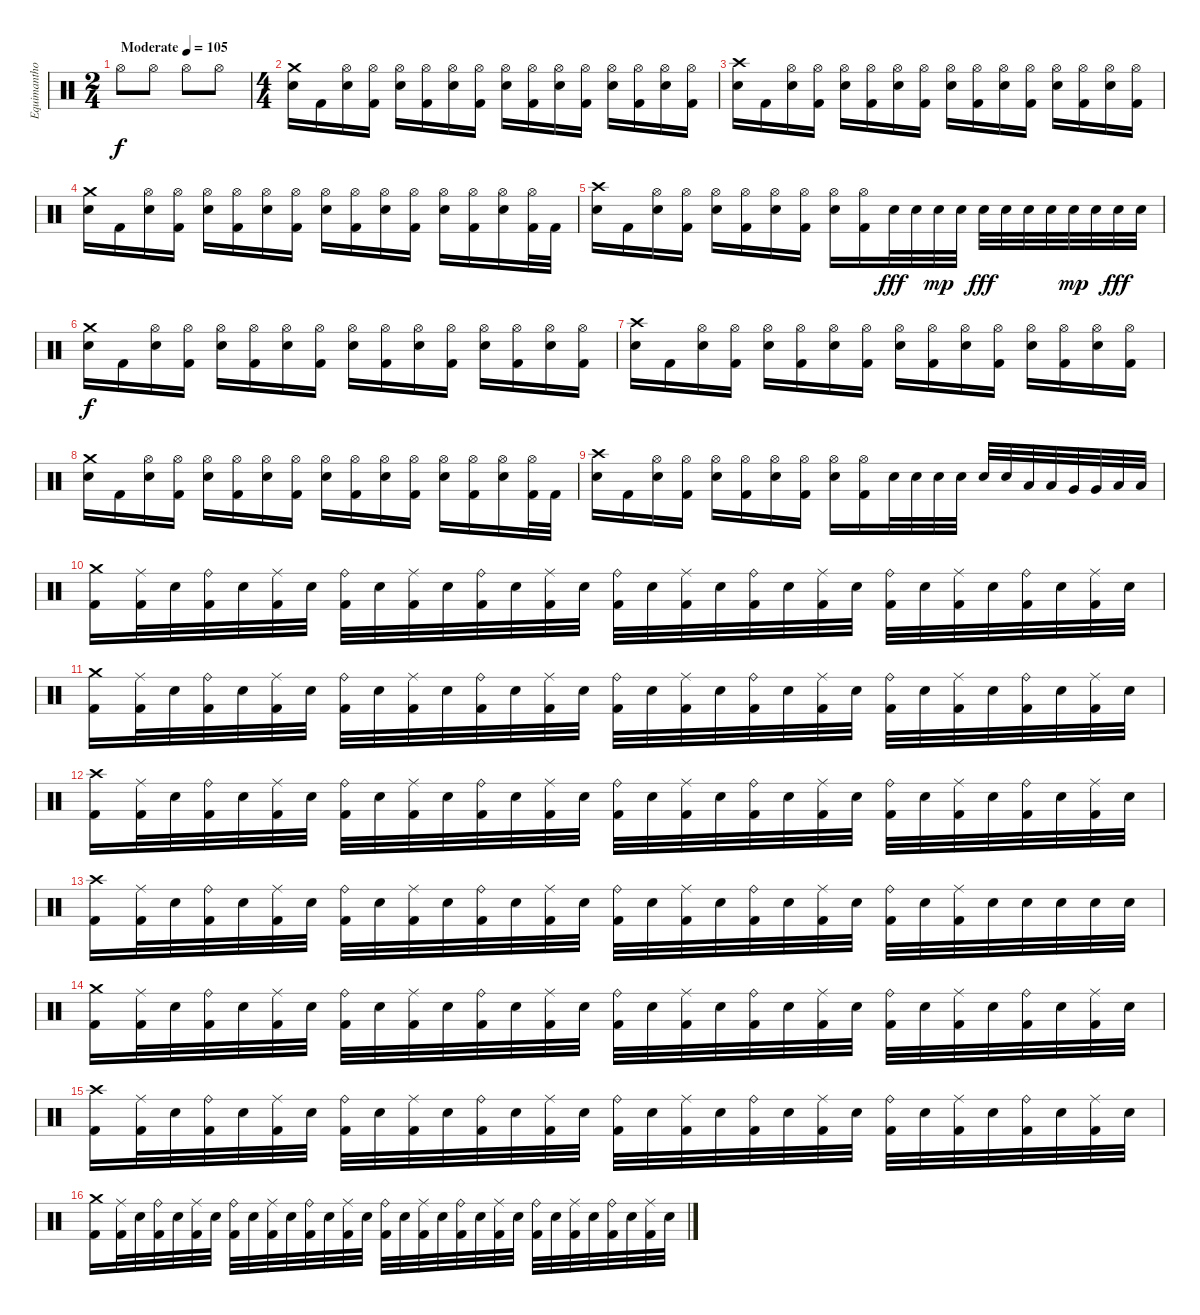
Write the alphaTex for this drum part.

\track ("Equimanthorn" "Equimantho") {instrument percussion}
\staff {score}
\articulation defaults
\ts (2 4)
\tempo (105 "Moderate")
\clef neutral
\ks c "Hi-Hat (open)".8{dy f} "Hi-Hat (open)".8 "Hi-Hat (open)".8 "Hi-Hat (open)".8
|
\ts (4 4)
("Crash medium (hit)" "Snare (hit) 2").16 "Kick (hit) 2".16 ("Hi-Hat (open)" "Snare (hit) 2").16 ("Hi-Hat (open)" "Kick (hit) 2").16 ("Hi-Hat (open)" "Snare (hit) 2").16 ("Hi-Hat (open)" "Kick (hit) 2").16 ("Hi-Hat (open)" "Snare (hit) 2").16 ("Hi-Hat (open)" "Kick (hit) 2").16 ("Hi-Hat (open)" "Snare (hit) 2").16 ("Hi-Hat (open)" "Kick (hit) 2").16 ("Hi-Hat (open)" "Snare (hit) 2").16 ("Hi-Hat (open)" "Kick (hit) 2").16 ("Hi-Hat (open)" "Snare (hit) 2").16 ("Hi-Hat (open)" "Kick (hit) 2").16 ("Hi-Hat (open)" "Snare (hit) 2").16 ("Hi-Hat (open)" "Kick (hit) 2").16 |
("Crash high (hit)" "Snare (hit) 2").16 "Kick (hit) 2".16 ("Hi-Hat (open)" "Snare (hit) 2").16 ("Hi-Hat (open)" "Kick (hit) 2").16 ("Hi-Hat (open)" "Snare (hit) 2").16 ("Hi-Hat (open)" "Kick (hit) 2").16 ("Hi-Hat (open)" "Snare (hit) 2").16 ("Hi-Hat (open)" "Kick (hit) 2").16 ("Hi-Hat (open)" "Snare (hit) 2").16 ("Hi-Hat (open)" "Kick (hit) 2").16 ("Hi-Hat (open)" "Snare (hit) 2").16 ("Hi-Hat (open)" "Kick (hit) 2").16 ("Hi-Hat (open)" "Snare (hit) 2").16 ("Hi-Hat (open)" "Kick (hit) 2").16 ("Hi-Hat (open)" "Snare (hit) 2").16 ("Hi-Hat (open)" "Kick (hit) 2").16 |
("Crash medium (hit)" "Snare (hit) 2").16 "Kick (hit) 2".16 ("Hi-Hat (open)" "Snare (hit) 2").16 ("Hi-Hat (open)" "Kick (hit) 2").16 ("Hi-Hat (open)" "Snare (hit) 2").16 ("Hi-Hat (open)" "Kick (hit) 2").16 ("Hi-Hat (open)" "Snare (hit) 2").16 ("Hi-Hat (open)" "Kick (hit) 2").16 ("Hi-Hat (open)" "Snare (hit) 2").16 ("Hi-Hat (open)" "Kick (hit) 2").16 ("Hi-Hat (open)" "Snare (hit) 2").16 ("Hi-Hat (open)" "Kick (hit) 2").16 ("Hi-Hat (open)" "Snare (hit) 2").16 ("Hi-Hat (open)" "Kick (hit) 2").16 ("Hi-Hat (open)" "Snare (hit) 2").16 ("Hi-Hat (open)" "Kick (hit) 2").32 "Kick (hit) 2".32 |
("Crash high (hit)" "Snare (hit) 2").16 "Kick (hit) 2".16 ("Hi-Hat (open)" "Snare (hit) 2").16 ("Hi-Hat (open)" "Kick (hit) 2").16 ("Hi-Hat (open)" "Snare (hit) 2").16 ("Hi-Hat (open)" "Kick (hit) 2").16 ("Hi-Hat (open)" "Snare (hit) 2").16 ("Hi-Hat (open)" "Kick (hit) 2").16 ("Hi-Hat (open)" "Snare (hit) 2").16 ("Hi-Hat (open)" "Kick (hit) 2").16 "Snare (hit) 2".32{dy fff} "Snare (hit) 2".32 "Snare (hit) 2".32{dy mp} "Snare (hit) 2".32 "Snare (hit) 2".32{dy fff} "Snare (hit) 2".32 "Snare (hit) 2".32 "Snare (hit) 2".32 "Snare (hit) 2".32{dy mp} "Snare (hit) 2".32 "Snare (hit) 2".32{dy fff} "Snare (hit) 2".32 |
("Crash medium (hit)" "Snare (hit) 2").16{dy f} "Kick (hit) 2".16 ("Hi-Hat (open)" "Snare (hit) 2").16 ("Hi-Hat (open)" "Kick (hit) 2").16 ("Hi-Hat (open)" "Snare (hit) 2").16 ("Hi-Hat (open)" "Kick (hit) 2").16 ("Hi-Hat (open)" "Snare (hit) 2").16 ("Hi-Hat (open)" "Kick (hit) 2").16 ("Hi-Hat (open)" "Snare (hit) 2").16 ("Hi-Hat (open)" "Kick (hit) 2").16 ("Hi-Hat (open)" "Snare (hit) 2").16 ("Hi-Hat (open)" "Kick (hit) 2").16 ("Hi-Hat (open)" "Snare (hit) 2").16 ("Hi-Hat (open)" "Kick (hit) 2").16 ("Hi-Hat (open)" "Snare (hit) 2").16 ("Hi-Hat (open)" "Kick (hit) 2").16 |
("Crash high (hit)" "Snare (hit) 2").16 "Kick (hit) 2".16 ("Hi-Hat (open)" "Snare (hit) 2").16 ("Hi-Hat (open)" "Kick (hit) 2").16 ("Hi-Hat (open)" "Snare (hit) 2").16 ("Hi-Hat (open)" "Kick (hit) 2").16 ("Hi-Hat (open)" "Snare (hit) 2").16 ("Hi-Hat (open)" "Kick (hit) 2").16 ("Hi-Hat (open)" "Snare (hit) 2").16 ("Hi-Hat (open)" "Kick (hit) 2").16 ("Hi-Hat (open)" "Snare (hit) 2").16 ("Hi-Hat (open)" "Kick (hit) 2").16 ("Hi-Hat (open)" "Snare (hit) 2").16 ("Hi-Hat (open)" "Kick (hit) 2").16 ("Hi-Hat (open)" "Snare (hit) 2").16 ("Hi-Hat (open)" "Kick (hit) 2").16 |
("Crash medium (hit)" "Snare (hit) 2").16 "Kick (hit) 2".16 ("Hi-Hat (open)" "Snare (hit) 2").16 ("Hi-Hat (open)" "Kick (hit) 2").16 ("Hi-Hat (open)" "Snare (hit) 2").16 ("Hi-Hat (open)" "Kick (hit) 2").16 ("Hi-Hat (open)" "Snare (hit) 2").16 ("Hi-Hat (open)" "Kick (hit) 2").16 ("Hi-Hat (open)" "Snare (hit) 2").16 ("Hi-Hat (open)" "Kick (hit) 2").16 ("Hi-Hat (open)" "Snare (hit) 2").16 ("Hi-Hat (open)" "Kick (hit) 2").16 ("Hi-Hat (open)" "Snare (hit) 2").16 ("Hi-Hat (open)" "Kick (hit) 2").16 ("Hi-Hat (open)" "Snare (hit) 2").16 ("Hi-Hat (open)" "Kick (hit) 2").32 "Kick (hit) 2".32 |
("Crash high (hit)" "Snare (hit) 2").16 "Kick (hit) 2".16 ("Hi-Hat (open)" "Snare (hit) 2").16 ("Hi-Hat (open)" "Kick (hit) 2").16 ("Hi-Hat (open)" "Snare (hit) 2").16 ("Hi-Hat (open)" "Kick (hit) 2").16 ("Hi-Hat (open)" "Snare (hit) 2").16 ("Hi-Hat (open)" "Kick (hit) 2").16 ("Hi-Hat (open)" "Snare (hit) 2").16 ("Hi-Hat (open)" "Kick (hit) 2").16 "Snare (hit) 2".32 "Snare (hit) 2".32 "Snare (hit) 2".32 "Snare (hit) 2".32 "Snare (hit) 2".32 "Snare (hit) 2".32 "Low Tom (hit)".32 "Low Tom (hit)".32 "Very Low Tom (hit)".32 "Very Low Tom (hit)".32 "Low Floor Tom (hit)".32 "Low Floor Tom (hit)".32 |
("Crash medium (hit)" "Kick (hit) 2").16 ("Ride (middle)" "Kick (hit) 2").32 "Snare (hit) 2".32 ("Ride (bell)" "Kick (hit) 2").32 "Snare (hit) 2".32 ("Ride (middle)" "Kick (hit) 2").32 "Snare (hit) 2".32 ("Ride (bell)" "Kick (hit) 2").32 "Snare (hit) 2".32 ("Ride (middle)" "Kick (hit) 2").32 "Snare (hit) 2".32 ("Ride (bell)" "Kick (hit) 2").32 "Snare (hit) 2".32 ("Ride (middle)" "Kick (hit) 2").32 "Snare (hit) 2".32 ("Ride (bell)" "Kick (hit) 2").32 "Snare (hit) 2".32 ("Ride (middle)" "Kick (hit) 2").32 "Snare (hit) 2".32 ("Ride (bell)" "Kick (hit) 2").32 "Snare (hit) 2".32 ("Ride (middle)" "Kick (hit) 2").32 "Snare (hit) 2".32 ("Ride (bell)" "Kick (hit) 2").32 "Snare (hit) 2".32 ("Ride (middle)" "Kick (hit) 2").32 "Snare (hit) 2".32 ("Ride (bell)" "Kick (hit) 2").32 "Snare (hit) 2".32 ("Ride (middle)" "Kick (hit) 2").32 "Snare (hit) 2".32 |
("Crash medium (hit)" "Kick (hit) 2").16 ("Ride (middle)" "Kick (hit) 2").32 "Snare (hit) 2".32 ("Ride (bell)" "Kick (hit) 2").32 "Snare (hit) 2".32 ("Ride (middle)" "Kick (hit) 2").32 "Snare (hit) 2".32 ("Ride (bell)" "Kick (hit) 2").32 "Snare (hit) 2".32 ("Ride (middle)" "Kick (hit) 2").32 "Snare (hit) 2".32 ("Ride (bell)" "Kick (hit) 2").32 "Snare (hit) 2".32 ("Ride (middle)" "Kick (hit) 2").32 "Snare (hit) 2".32 ("Ride (bell)" "Kick (hit) 2").32 "Snare (hit) 2".32 ("Ride (middle)" "Kick (hit) 2").32 "Snare (hit) 2".32 ("Ride (bell)" "Kick (hit) 2").32 "Snare (hit) 2".32 ("Ride (middle)" "Kick (hit) 2").32 "Snare (hit) 2".32 ("Ride (bell)" "Kick (hit) 2").32 "Snare (hit) 2".32 ("Ride (middle)" "Kick (hit) 2").32 "Snare (hit) 2".32 ("Ride (bell)" "Kick (hit) 2").32 "Snare (hit) 2".32 ("Ride (middle)" "Kick (hit) 2").32 "Snare (hit) 2".32 |
("Crash high (hit)" "Kick (hit) 2").16 ("Ride (middle)" "Kick (hit) 2").32 "Snare (hit) 2".32 ("Ride (bell)" "Kick (hit) 2").32 "Snare (hit) 2".32 ("Ride (middle)" "Kick (hit) 2").32 "Snare (hit) 2".32 ("Ride (bell)" "Kick (hit) 2").32 "Snare (hit) 2".32 ("Ride (middle)" "Kick (hit) 2").32 "Snare (hit) 2".32 ("Ride (bell)" "Kick (hit) 2").32 "Snare (hit) 2".32 ("Ride (middle)" "Kick (hit) 2").32 "Snare (hit) 2".32 ("Ride (bell)" "Kick (hit) 2").32 "Snare (hit) 2".32 ("Ride (middle)" "Kick (hit) 2").32 "Snare (hit) 2".32 ("Ride (bell)" "Kick (hit) 2").32 "Snare (hit) 2".32 ("Ride (middle)" "Kick (hit) 2").32 "Snare (hit) 2".32 ("Ride (bell)" "Kick (hit) 2").32 "Snare (hit) 2".32 ("Ride (middle)" "Kick (hit) 2").32 "Snare (hit) 2".32 ("Ride (bell)" "Kick (hit) 2").32 "Snare (hit) 2".32 ("Ride (middle)" "Kick (hit) 2").32 "Snare (hit) 2".32 |
("Crash high (hit)" "Kick (hit) 2").16 ("Ride (middle)" "Kick (hit) 2").32 "Snare (hit) 2".32 ("Ride (bell)" "Kick (hit) 2").32 "Snare (hit) 2".32 ("Ride (middle)" "Kick (hit) 2").32 "Snare (hit) 2".32 ("Ride (bell)" "Kick (hit) 2").32 "Snare (hit) 2".32 ("Ride (middle)" "Kick (hit) 2").32 "Snare (hit) 2".32 ("Ride (bell)" "Kick (hit) 2").32 "Snare (hit) 2".32 ("Ride (middle)" "Kick (hit) 2").32 "Snare (hit) 2".32 ("Ride (bell)" "Kick (hit) 2").32 "Snare (hit) 2".32 ("Ride (middle)" "Kick (hit) 2").32 "Snare (hit) 2".32 ("Ride (bell)" "Kick (hit) 2").32 "Snare (hit) 2".32 ("Ride (middle)" "Kick (hit) 2").32 "Snare (hit) 2".32 ("Ride (bell)" "Kick (hit) 2").32 "Snare (hit) 2".32 ("Ride (middle)" "Kick (hit) 2").32 "Snare (hit) 2".32 "Snare (hit) 2".32 "Snare (hit) 2".32 "Snare (hit) 2".32 "Snare (hit) 2".32 |
("Crash medium (hit)" "Kick (hit) 2").16 ("Ride (middle)" "Kick (hit) 2").32 "Snare (hit) 2".32 ("Ride (bell)" "Kick (hit) 2").32 "Snare (hit) 2".32 ("Ride (middle)" "Kick (hit) 2").32 "Snare (hit) 2".32 ("Ride (bell)" "Kick (hit) 2").32 "Snare (hit) 2".32 ("Ride (middle)" "Kick (hit) 2").32 "Snare (hit) 2".32 ("Ride (bell)" "Kick (hit) 2").32 "Snare (hit) 2".32 ("Ride (middle)" "Kick (hit) 2").32 "Snare (hit) 2".32 ("Ride (bell)" "Kick (hit) 2").32 "Snare (hit) 2".32 ("Ride (middle)" "Kick (hit) 2").32 "Snare (hit) 2".32 ("Ride (bell)" "Kick (hit) 2").32 "Snare (hit) 2".32 ("Ride (middle)" "Kick (hit) 2").32 "Snare (hit) 2".32 ("Ride (bell)" "Kick (hit) 2").32 "Snare (hit) 2".32 ("Ride (middle)" "Kick (hit) 2").32 "Snare (hit) 2".32 ("Ride (bell)" "Kick (hit) 2").32 "Snare (hit) 2".32 ("Ride (middle)" "Kick (hit) 2").32 "Snare (hit) 2".32 |
("Crash high (hit)" "Kick (hit) 2").16 ("Ride (middle)" "Kick (hit) 2").32 "Snare (hit) 2".32 ("Ride (bell)" "Kick (hit) 2").32 "Snare (hit) 2".32 ("Ride (middle)" "Kick (hit) 2").32 "Snare (hit) 2".32 ("Ride (bell)" "Kick (hit) 2").32 "Snare (hit) 2".32 ("Ride (middle)" "Kick (hit) 2").32 "Snare (hit) 2".32 ("Ride (bell)" "Kick (hit) 2").32 "Snare (hit) 2".32 ("Ride (middle)" "Kick (hit) 2").32 "Snare (hit) 2".32 ("Ride (bell)" "Kick (hit) 2").32 "Snare (hit) 2".32 ("Ride (middle)" "Kick (hit) 2").32 "Snare (hit) 2".32 ("Ride (bell)" "Kick (hit) 2").32 "Snare (hit) 2".32 ("Ride (middle)" "Kick (hit) 2").32 "Snare (hit) 2".32 ("Ride (bell)" "Kick (hit) 2").32 "Snare (hit) 2".32 ("Ride (middle)" "Kick (hit) 2").32 "Snare (hit) 2".32 ("Ride (bell)" "Kick (hit) 2").32 "Snare (hit) 2".32 ("Ride (middle)" "Kick (hit) 2").32 "Snare (hit) 2".32 |
("Crash medium (hit)" "Kick (hit) 2").16 ("Ride (middle)" "Kick (hit) 2").32 "Snare (hit) 2".32 ("Ride (bell)" "Kick (hit) 2").32 "Snare (hit) 2".32 ("Ride (middle)" "Kick (hit) 2").32 "Snare (hit) 2".32 ("Ride (bell)" "Kick (hit) 2").32 "Snare (hit) 2".32 ("Ride (middle)" "Kick (hit) 2").32 "Snare (hit) 2".32 ("Ride (bell)" "Kick (hit) 2").32 "Snare (hit) 2".32 ("Ride (middle)" "Kick (hit) 2").32 "Snare (hit) 2".32 ("Ride (bell)" "Kick (hit) 2").32 "Snare (hit) 2".32 ("Ride (middle)" "Kick (hit) 2").32 "Snare (hit) 2".32 ("Ride (bell)" "Kick (hit) 2").32 "Snare (hit) 2".32 ("Ride (middle)" "Kick (hit) 2").32 "Snare (hit) 2".32 ("Ride (bell)" "Kick (hit) 2").32 "Snare (hit) 2".32 ("Ride (middle)" "Kick (hit) 2").32 "Snare (hit) 2".32 ("Ride (bell)" "Kick (hit) 2").32 "Snare (hit) 2".32 ("Ride (middle)" "Kick (hit) 2").32 "Snare (hit) 2".32
